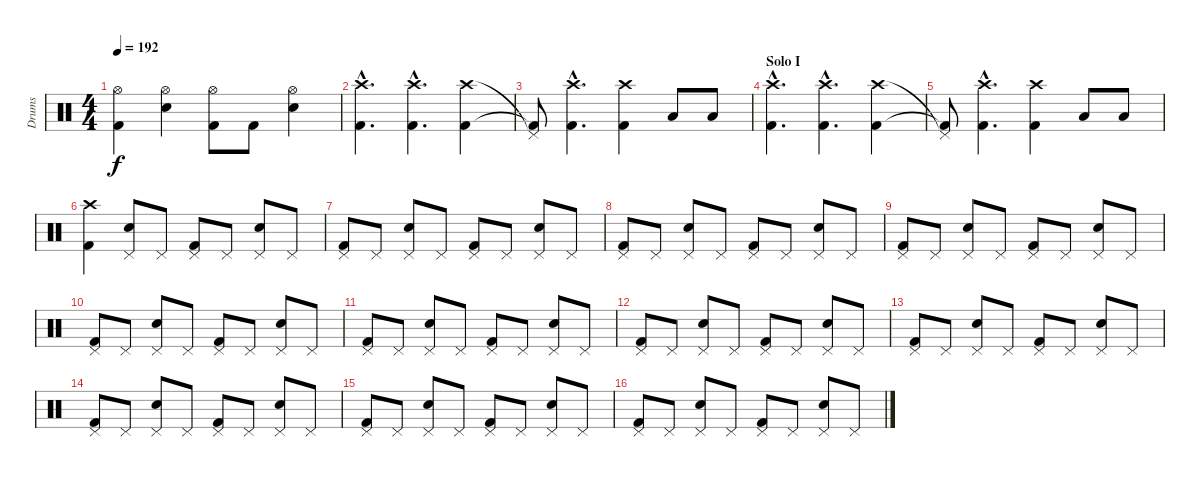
\track ("Drums" "Drums") {instrument percussion}
\staff {score}
\articulation defaults
\ts (4 4)
\tempo 192
\clef neutral
\ks c
("Hi-Hat (open)" "Kick (hit) 2").4{dy f} ("Hi-Hat (open)" "Electric Snare (hit)").4 ("Hi-Hat (open)" "Kick (hit) 2").8 "Kick (hit) 2".8 ("Hi-Hat (open)" "Electric Snare (hit)").4 |
("Crash high (hit)"{hac} "Kick (hit) 2"{hac}).4{d} ("Crash high (hit)"{hac} "Kick (hit) 2"{hac}).4{d} ("Crash high (hit)" "Kick (hit) 2").4 |
("Pedal Hi-Hat (hit)"{t} "Kick (hit) 2"{t}).8 ("Crash high (hit)"{hac} "Kick (hit) 2"{hac}).4{d} ("Crash high (hit)" "Kick (hit) 2").4 "Low Tom (hit)".8 "Low Tom (hit)".8 |
\section ("" "Solo I")
("Crash high (hit)"{hac} "Kick (hit) 2"{hac}).4{d} ("Crash high (hit)"{hac} "Kick (hit) 2"{hac}).4{d} ("Crash high (hit)" "Kick (hit) 2").4 |
("Pedal Hi-Hat (hit)"{t} "Kick (hit) 2"{t}).8 ("Crash high (hit)"{hac} "Kick (hit) 2"{hac}).4{d} ("Crash high (hit)" "Kick (hit) 2").4 "Low Tom (hit)".8 "Low Tom (hit)".8 |
("Crash high (hit)" "Kick (hit) 2").4 ("Pedal Hi-Hat (hit)" "Electric Snare (hit)").8 "Pedal Hi-Hat (hit)".8 ("Pedal Hi-Hat (hit)" "Kick (hit) 2").8 "Pedal Hi-Hat (hit)".8 ("Pedal Hi-Hat (hit)" "Electric Snare (hit)").8 "Pedal Hi-Hat (hit)".8 |
("Pedal Hi-Hat (hit)" "Kick (hit) 2").8 "Pedal Hi-Hat (hit)".8 ("Pedal Hi-Hat (hit)" "Electric Snare (hit)").8 "Pedal Hi-Hat (hit)".8 ("Pedal Hi-Hat (hit)" "Kick (hit) 2").8 "Pedal Hi-Hat (hit)".8 ("Pedal Hi-Hat (hit)" "Electric Snare (hit)").8 "Pedal Hi-Hat (hit)".8 |
("Pedal Hi-Hat (hit)" "Kick (hit) 2").8 "Pedal Hi-Hat (hit)".8 ("Pedal Hi-Hat (hit)" "Electric Snare (hit)").8 "Pedal Hi-Hat (hit)".8 ("Pedal Hi-Hat (hit)" "Kick (hit) 2").8 "Pedal Hi-Hat (hit)".8 ("Pedal Hi-Hat (hit)" "Electric Snare (hit)").8 "Pedal Hi-Hat (hit)".8 |
("Pedal Hi-Hat (hit)" "Kick (hit) 2").8 "Pedal Hi-Hat (hit)".8 ("Pedal Hi-Hat (hit)" "Electric Snare (hit)").8 "Pedal Hi-Hat (hit)".8 ("Pedal Hi-Hat (hit)" "Kick (hit) 2").8 "Pedal Hi-Hat (hit)".8 ("Pedal Hi-Hat (hit)" "Electric Snare (hit)").8 "Pedal Hi-Hat (hit)".8 |
("Pedal Hi-Hat (hit)" "Kick (hit) 2").8 "Pedal Hi-Hat (hit)".8 ("Pedal Hi-Hat (hit)" "Electric Snare (hit)").8 "Pedal Hi-Hat (hit)".8 ("Pedal Hi-Hat (hit)" "Kick (hit) 2").8 "Pedal Hi-Hat (hit)".8 ("Pedal Hi-Hat (hit)" "Electric Snare (hit)").8 "Pedal Hi-Hat (hit)".8 |
("Pedal Hi-Hat (hit)" "Kick (hit) 2").8 "Pedal Hi-Hat (hit)".8 ("Pedal Hi-Hat (hit)" "Electric Snare (hit)").8 "Pedal Hi-Hat (hit)".8 ("Pedal Hi-Hat (hit)" "Kick (hit) 2").8 "Pedal Hi-Hat (hit)".8 ("Pedal Hi-Hat (hit)" "Electric Snare (hit)").8 "Pedal Hi-Hat (hit)".8 |
("Pedal Hi-Hat (hit)" "Kick (hit) 2").8 "Pedal Hi-Hat (hit)".8 ("Pedal Hi-Hat (hit)" "Electric Snare (hit)").8 "Pedal Hi-Hat (hit)".8 ("Pedal Hi-Hat (hit)" "Kick (hit) 2").8 "Pedal Hi-Hat (hit)".8 ("Pedal Hi-Hat (hit)" "Electric Snare (hit)").8 "Pedal Hi-Hat (hit)".8 |
("Pedal Hi-Hat (hit)" "Kick (hit) 2").8 "Pedal Hi-Hat (hit)".8 ("Pedal Hi-Hat (hit)" "Electric Snare (hit)").8 "Pedal Hi-Hat (hit)".8 ("Pedal Hi-Hat (hit)" "Kick (hit) 2").8 "Pedal Hi-Hat (hit)".8 ("Pedal Hi-Hat (hit)" "Electric Snare (hit)").8 "Pedal Hi-Hat (hit)".8 |
("Pedal Hi-Hat (hit)" "Kick (hit) 2").8 "Pedal Hi-Hat (hit)".8 ("Pedal Hi-Hat (hit)" "Electric Snare (hit)").8 "Pedal Hi-Hat (hit)".8 ("Pedal Hi-Hat (hit)" "Kick (hit) 2").8 "Pedal Hi-Hat (hit)".8 ("Pedal Hi-Hat (hit)" "Electric Snare (hit)").8 "Pedal Hi-Hat (hit)".8 |
("Pedal Hi-Hat (hit)" "Kick (hit) 2").8 "Pedal Hi-Hat (hit)".8 ("Pedal Hi-Hat (hit)" "Electric Snare (hit)").8 "Pedal Hi-Hat (hit)".8 ("Pedal Hi-Hat (hit)" "Kick (hit) 2").8 "Pedal Hi-Hat (hit)".8 ("Pedal Hi-Hat (hit)" "Electric Snare (hit)").8 "Pedal Hi-Hat (hit)".8 |
("Pedal Hi-Hat (hit)" "Kick (hit) 2").8 "Pedal Hi-Hat (hit)".8 ("Pedal Hi-Hat (hit)" "Electric Snare (hit)").8 "Pedal Hi-Hat (hit)".8 ("Pedal Hi-Hat (hit)" "Kick (hit) 2").8 "Pedal Hi-Hat (hit)".8 ("Pedal Hi-Hat (hit)" "Electric Snare (hit)").8 "Pedal Hi-Hat (hit)".8
